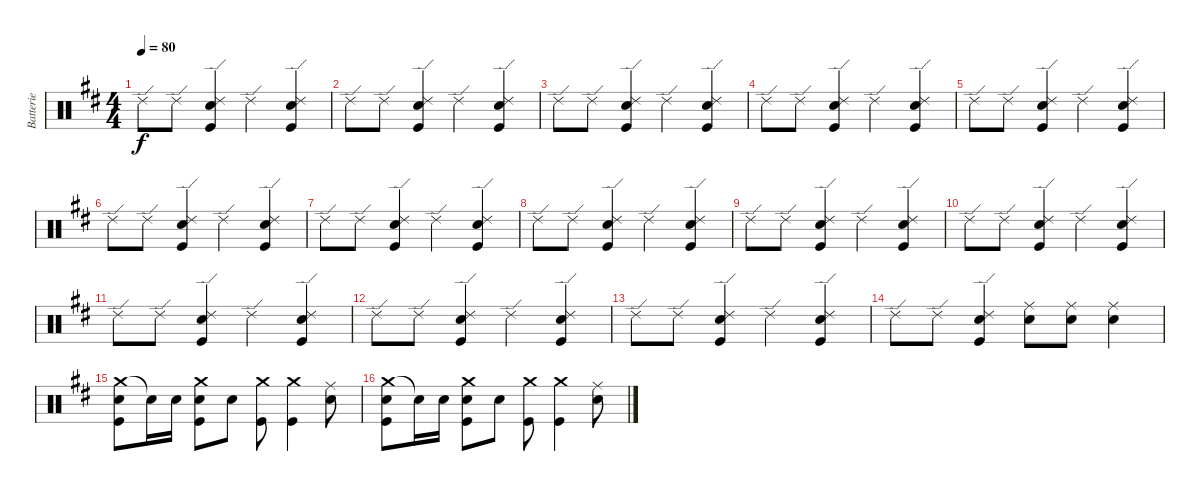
\track ("Batterie" "Batterie") {instrument percussion}
\staff {score}
\articulation defaults
\ts (4 4)
\tempo 80
\clef neutral
\ks d "Ride (edge) 2".8{dy f} "Ride (edge) 2".8
("Ride (edge) 2" "Electric Snare (hit)" "Kick (hit)").4 "Ride (edge) 2".4 ("Ride (edge) 2" "Electric Snare (hit)" "Kick (hit)").4 |
"Ride (edge) 2".8 "Ride (edge) 2".8 ("Ride (edge) 2" "Electric Snare (hit)" "Kick (hit)").4 "Ride (edge) 2".4 ("Ride (edge) 2" "Electric Snare (hit)" "Kick (hit)").4 |
"Ride (edge) 2".8 "Ride (edge) 2".8 ("Ride (edge) 2" "Electric Snare (hit)" "Kick (hit)").4 "Ride (edge) 2".4 ("Ride (edge) 2" "Electric Snare (hit)" "Kick (hit)").4 |
"Ride (edge) 2".8 "Ride (edge) 2".8 ("Ride (edge) 2" "Electric Snare (hit)" "Kick (hit)").4 "Ride (edge) 2".4 ("Ride (edge) 2" "Electric Snare (hit)" "Kick (hit)").4 |
"Ride (edge) 2".8 "Ride (edge) 2".8 ("Ride (edge) 2" "Electric Snare (hit)" "Kick (hit)").4 "Ride (edge) 2".4 ("Ride (edge) 2" "Electric Snare (hit)" "Kick (hit)").4 |
"Ride (edge) 2".8 "Ride (edge) 2".8 ("Ride (edge) 2" "Electric Snare (hit)" "Kick (hit)").4 "Ride (edge) 2".4 ("Ride (edge) 2" "Electric Snare (hit)" "Kick (hit)").4 |
"Ride (edge) 2".8 "Ride (edge) 2".8 ("Ride (edge) 2" "Electric Snare (hit)" "Kick (hit)").4 "Ride (edge) 2".4 ("Ride (edge) 2" "Electric Snare (hit)" "Kick (hit)").4 |
"Ride (edge) 2".8 "Ride (edge) 2".8 ("Ride (edge) 2" "Electric Snare (hit)" "Kick (hit)").4 "Ride (edge) 2".4 ("Ride (edge) 2" "Electric Snare (hit)" "Kick (hit)").4 |
"Ride (edge) 2".8 "Ride (edge) 2".8 ("Ride (edge) 2" "Electric Snare (hit)" "Kick (hit)").4 "Ride (edge) 2".4 ("Ride (edge) 2" "Electric Snare (hit)" "Kick (hit)").4 |
"Ride (edge) 2".8 "Ride (edge) 2".8 ("Ride (edge) 2" "Electric Snare (hit)" "Kick (hit)").4 "Ride (edge) 2".4 ("Ride (edge) 2" "Electric Snare (hit)" "Kick (hit)").4 |
"Ride (edge) 2".8 "Ride (edge) 2".8 ("Ride (edge) 2" "Electric Snare (hit)" "Kick (hit)").4 "Ride (edge) 2".4 ("Ride (edge) 2" "Electric Snare (hit)" "Kick (hit)").4 |
"Ride (edge) 2".8 "Ride (edge) 2".8 ("Ride (edge) 2" "Electric Snare (hit)" "Kick (hit)").4 "Ride (edge) 2".4 ("Ride (edge) 2" "Electric Snare (hit)" "Kick (hit)").4 |
"Ride (edge) 2".8 "Ride (edge) 2".8 ("Ride (edge) 2" "Electric Snare (hit)" "Kick (hit)").4 "Ride (edge) 2".4 ("Ride (edge) 2" "Electric Snare (hit)" "Kick (hit)").4 |
"Ride (edge) 2".8 "Ride (edge) 2".8 ("Ride (edge) 2" "Electric Snare (hit)" "Kick (hit)").4 ("Ride (middle)" "Electric Snare (hit)").8 ("Ride (middle)" "Electric Snare (hit)").8 ("Ride (middle)" "Electric Snare (hit)").4 |
("Crash medium (hit)" "Electric Snare (hit)" "Kick (hit)").8 "Electric Snare (hit)"{t}.16 "Electric Snare (hit)".16 ("Crash medium (hit)" "Electric Snare (hit)" "Kick (hit)").8 "Electric Snare (hit)".8 ("Crash medium (hit)" "Kick (hit)").8 ("Crash medium (hit)" "Kick (hit)").4 ("Ride (middle)" "Electric Snare (hit)").8 |
("Crash medium (hit)" "Electric Snare (hit)" "Kick (hit)").8 "Electric Snare (hit)"{t}.16 "Electric Snare (hit)".16 ("Crash medium (hit)" "Electric Snare (hit)" "Kick (hit)").8 "Electric Snare (hit)".8 ("Crash medium (hit)" "Kick (hit)").8 ("Crash medium (hit)" "Kick (hit)").4 ("Ride (middle)" "Electric Snare (hit)").8
